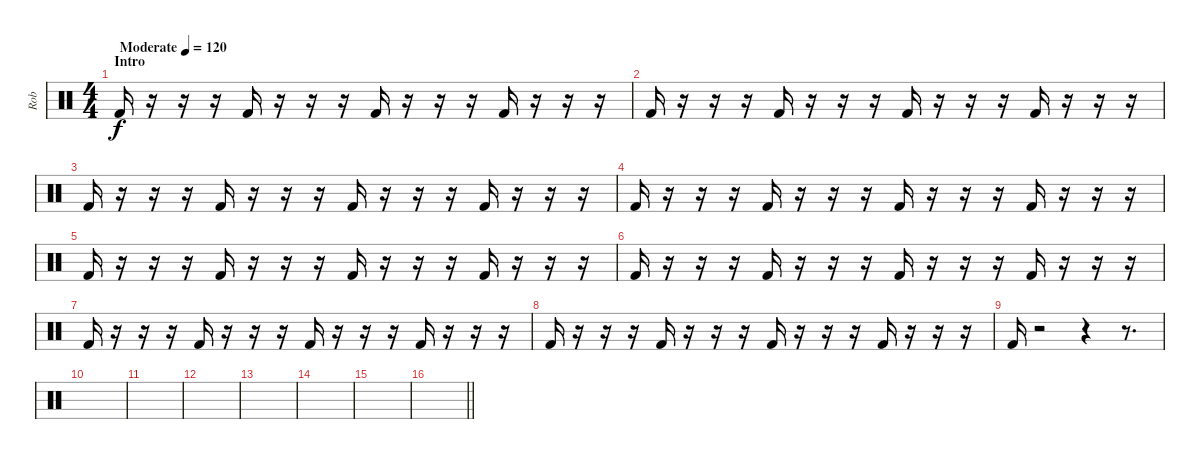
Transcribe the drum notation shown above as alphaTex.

\track ("Rob" "Rob") {instrument percussion}
\staff {score}
\articulation defaults
\ts (4 4)
\section ("" "Intro")
\tempo (120 "Moderate")
\clef neutral
\ks c "Kick (hit) 2".16{dy f volume 16}
r.16 r.16 r.16 "Kick (hit) 2".16 r.16 r.16 r.16 "Kick (hit) 2".16 r.16 r.16 r.16 "Kick (hit) 2".16 r.16 r.16 r.16 |
"Kick (hit) 2".16 r.16 r.16 r.16 "Kick (hit) 2".16 r.16 r.16 r.16 "Kick (hit) 2".16 r.16 r.16 r.16 "Kick (hit) 2".16 r.16 r.16 r.16 |
"Kick (hit) 2".16 r.16 r.16 r.16 "Kick (hit) 2".16 r.16 r.16 r.16 "Kick (hit) 2".16 r.16 r.16 r.16 "Kick (hit) 2".16 r.16 r.16 r.16 |
"Kick (hit) 2".16 r.16 r.16 r.16 "Kick (hit) 2".16 r.16 r.16 r.16 "Kick (hit) 2".16 r.16 r.16 r.16 "Kick (hit) 2".16 r.16 r.16 r.16 |
"Kick (hit) 2".16 r.16 r.16 r.16 "Kick (hit) 2".16 r.16 r.16 r.16 "Kick (hit) 2".16 r.16 r.16 r.16 "Kick (hit) 2".16 r.16 r.16 r.16 |
"Kick (hit) 2".16 r.16 r.16 r.16 "Kick (hit) 2".16 r.16 r.16 r.16 "Kick (hit) 2".16 r.16 r.16 r.16 "Kick (hit) 2".16 r.16 r.16 r.16 |
"Kick (hit) 2".16 r.16 r.16 r.16 "Kick (hit) 2".16 r.16 r.16 r.16 "Kick (hit) 2".16 r.16 r.16 r.16 "Kick (hit) 2".16 r.16 r.16 r.16 |
"Kick (hit) 2".16 r.16 r.16 r.16 "Kick (hit) 2".16 r.16 r.16 r.16 "Kick (hit) 2".16 r.16 r.16 r.16 "Kick (hit) 2".16 r.16 r.16 r.16 |
"Kick (hit) 2".16 r.2 r.4 r.8{d} |
|
|
|
|
|
|
\barLineRight lightlight
